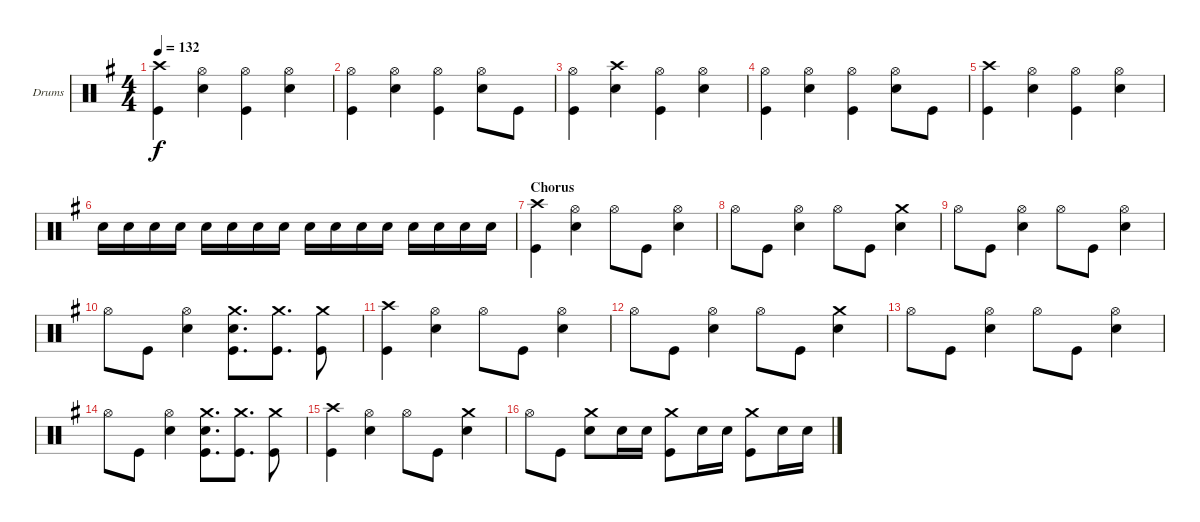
\bracketExtendMode groupsimilarinstruments
\firstSystemTrackNameOrientation horizontal
\otherSystemsTrackNameOrientation horizontal
\track ("Drumkit" "Drums") {instrument percussion}
\staff {score}
\articulation defaults
\ts (4 4)
\tempo 132
\clef neutral
\ks g
("Crash high (hit)" "Kick (hit)").4{dy f} ("Hi-Hat (open)" "Snare (hit) 2").4 ("Hi-Hat (open)" "Kick (hit)").4 ("Hi-Hat (open)" "Snare (hit) 2").4 |
("Hi-Hat (open)" "Kick (hit)").4 ("Hi-Hat (open)" "Snare (hit) 2").4 ("Hi-Hat (open)" "Kick (hit)").4 ("Hi-Hat (open)" "Snare (hit) 2").8 "Kick (hit)".8 |
("Hi-Hat (open)" "Kick (hit)").4 ("Crash high (hit)" "Snare (hit) 2").4 ("Hi-Hat (open)" "Kick (hit)").4 ("Hi-Hat (open)" "Snare (hit) 2").4 |
("Hi-Hat (open)" "Kick (hit)").4 ("Hi-Hat (open)" "Snare (hit) 2").4 ("Hi-Hat (open)" "Kick (hit)").4 ("Hi-Hat (open)" "Snare (hit) 2").8 "Kick (hit)".8 |
("Crash high (hit)" "Kick (hit)").4 ("Hi-Hat (open)" "Snare (hit) 2").4 ("Hi-Hat (open)" "Kick (hit)").4 ("Hi-Hat (open)" "Snare (hit) 2").4 |
"Snare (hit) 2".16 "Snare (hit) 2".16 "Snare (hit) 2".16 "Snare (hit) 2".16 "Snare (hit) 2".16 "Snare (hit) 2".16 "Snare (hit) 2".16 "Snare (hit) 2".16 "Snare (hit) 2".16 "Snare (hit) 2".16 "Snare (hit) 2".16 "Snare (hit) 2".16 "Snare (hit) 2".16 "Snare (hit) 2".16 "Snare (hit) 2".16 "Snare (hit) 2".16 |
\section ("" "Chorus")
("Crash high (hit)" "Kick (hit)").4 ("Hi-Hat (open)" "Snare (hit) 2").4 "Hi-Hat (open)".8 "Kick (hit)".8 ("Hi-Hat (open)" "Snare (hit) 2").4 |
"Hi-Hat (open)".8 "Kick (hit)".8 ("Hi-Hat (open)" "Snare (hit) 2").4 "Hi-Hat (open)".8 "Kick (hit)".8 ("Crash medium (hit)" "Snare (hit) 2").4 |
"Hi-Hat (open)".8 "Kick (hit)".8 ("Hi-Hat (open)" "Snare (hit) 2").4 "Hi-Hat (open)".8 "Kick (hit)".8 ("Hi-Hat (open)" "Snare (hit) 2").4 |
"Hi-Hat (open)".8 "Kick (hit)".8 ("Hi-Hat (open)" "Snare (hit) 2").4 ("Crash medium (hit)" "Snare (hit) 2" "Kick (hit)").8{d} ("Crash medium (hit)" "Kick (hit)").8{d} ("Crash medium (hit)" "Kick (hit)").8 |
("Crash high (hit)" "Kick (hit)").4 ("Hi-Hat (open)" "Snare (hit) 2").4 "Hi-Hat (open)".8 "Kick (hit)".8 ("Hi-Hat (open)" "Snare (hit) 2").4 |
"Hi-Hat (open)".8 "Kick (hit)".8 ("Hi-Hat (open)" "Snare (hit) 2").4 "Hi-Hat (open)".8 "Kick (hit)".8 ("Crash medium (hit)" "Snare (hit) 2").4 |
"Hi-Hat (open)".8 "Kick (hit)".8 ("Hi-Hat (open)" "Snare (hit) 2").4 "Hi-Hat (open)".8 "Kick (hit)".8 ("Hi-Hat (open)" "Snare (hit) 2").4 |
"Hi-Hat (open)".8 "Kick (hit)".8 ("Hi-Hat (open)" "Snare (hit) 2").4 ("Crash medium (hit)" "Snare (hit) 2" "Kick (hit)").8{d} ("Crash medium (hit)" "Kick (hit)").8{d} ("Crash medium (hit)" "Kick (hit)").8 |
("Crash high (hit)" "Kick (hit)").4 ("Hi-Hat (open)" "Snare (hit) 2").4 "Hi-Hat (open)".8 "Kick (hit)".8 ("Crash medium (hit)" "Snare (hit) 2").4 |
"Hi-Hat (open)".8 "Kick (hit)".8 ("Crash medium (hit)" "Snare (hit) 2").8 "Snare (hit) 2".16 "Snare (hit) 2".16 ("Crash medium (hit)" "Kick (hit)").8 "Snare (hit) 2".16 "Snare (hit) 2".16 ("Crash medium (hit)" "Kick (hit)").8 "Snare (hit) 2".16 "Snare (hit) 2".16
